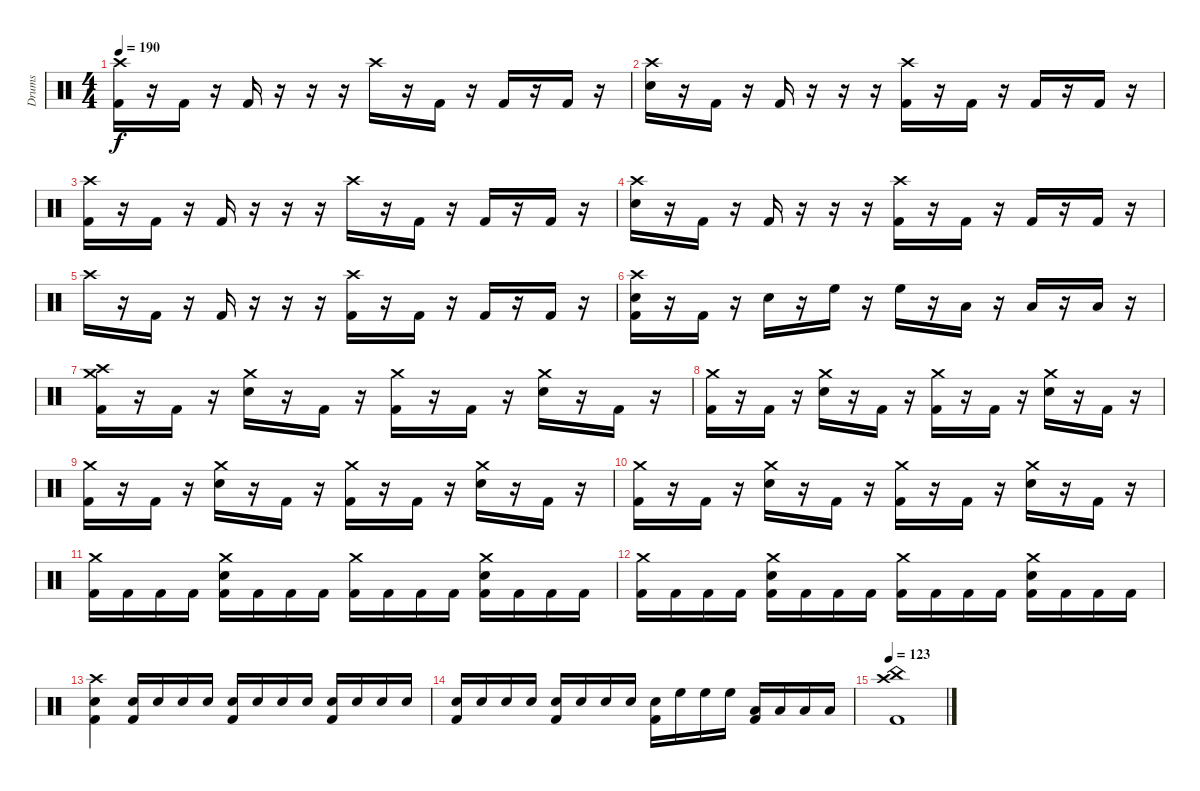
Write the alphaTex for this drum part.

\track ("Drums" "Drums") {instrument percussion}
\staff {score}
\articulation defaults
\ts (4 4)
\tempo 190
\clef neutral
\ks c
("Crash high (hit)" "Kick (hit) 2").16{dy f} r.16 "Kick (hit) 2".16 r.16 "Kick (hit) 2".16 r.16 r.16 r.16 "Crash high (hit)".16 r.16 "Kick (hit) 2".16 r.16 "Kick (hit) 2".16 r.16 "Kick (hit) 2".16 r.16 |
("Crash high (hit)" "Electric Snare (hit)").16 r.16 "Kick (hit) 2".16 r.16 "Kick (hit) 2".16 r.16 r.16 r.16 ("Crash high (hit)" "Kick (hit) 2").16 r.16 "Kick (hit) 2".16 r.16 "Kick (hit) 2".16 r.16 "Kick (hit) 2".16 r.16 |
("Crash high (hit)" "Kick (hit) 2").16 r.16 "Kick (hit) 2".16 r.16 "Kick (hit) 2".16 r.16 r.16 r.16 "Crash high (hit)".16 r.16 "Kick (hit) 2".16 r.16 "Kick (hit) 2".16 r.16 "Kick (hit) 2".16 r.16 |
("Crash high (hit)" "Electric Snare (hit)").16 r.16 "Kick (hit) 2".16 r.16 "Kick (hit) 2".16 r.16 r.16 r.16 ("Crash high (hit)" "Kick (hit) 2").16 r.16 "Kick (hit) 2".16 r.16 "Kick (hit) 2".16 r.16 "Kick (hit) 2".16 r.16 |
"Crash high (hit)".16 r.16 "Kick (hit) 2".16 r.16 "Kick (hit) 2".16 r.16 r.16 r.16 ("Crash high (hit)" "Kick (hit) 2").16 r.16 "Kick (hit) 2".16 r.16 "Kick (hit) 2".16 r.16 "Kick (hit) 2".16 r.16 |
("Crash high (hit)" "Electric Snare (hit)" "Kick (hit) 2").16 r.16 "Kick (hit) 2".16 r.16 "Electric Snare (hit)".16 r.16 "High Floor Tom (hit)".16 r.16 "High Floor Tom (hit)".16 r.16 "Low Tom (hit)".16 r.16 "Low Tom (hit)".16 r.16 "Low Floor Tom (hit)".16 r.16 |
("Crash medium (hit)" "Crash high (hit)" "Kick (hit) 2").16 r.16 "Kick (hit) 2".16 r.16 ("Crash medium (hit)" "Electric Snare (hit)").16 r.16 "Kick (hit) 2".16 r.16 ("Crash medium (hit)" "Kick (hit) 2").16 r.16 "Kick (hit) 2".16 r.16 ("Crash medium (hit)" "Electric Snare (hit)").16 r.16 "Kick (hit) 2".16 r.16 |
("Crash medium (hit)" "Kick (hit) 2").16 r.16 "Kick (hit) 2".16 r.16 ("Crash medium (hit)" "Electric Snare (hit)").16 r.16 "Kick (hit) 2".16 r.16 ("Crash medium (hit)" "Kick (hit) 2").16 r.16 "Kick (hit) 2".16 r.16 ("Crash medium (hit)" "Electric Snare (hit)").16 r.16 "Kick (hit) 2".16 r.16 |
("Crash medium (hit)" "Kick (hit) 2").16 r.16 "Kick (hit) 2".16 r.16 ("Crash medium (hit)" "Electric Snare (hit)").16 r.16 "Kick (hit) 2".16 r.16 ("Crash medium (hit)" "Kick (hit) 2").16 r.16 "Kick (hit) 2".16 r.16 ("Crash medium (hit)" "Electric Snare (hit)").16 r.16 "Kick (hit) 2".16 r.16 |
("Crash medium (hit)" "Kick (hit) 2").16 r.16 "Kick (hit) 2".16 r.16 ("Crash medium (hit)" "Electric Snare (hit)").16 r.16 "Kick (hit) 2".16 r.16 ("Crash medium (hit)" "Kick (hit) 2").16 r.16 "Kick (hit) 2".16 r.16 ("Crash medium (hit)" "Electric Snare (hit)").16 r.16 "Kick (hit) 2".16 r.16 |
("Crash medium (hit)" "Kick (hit) 2").16 "Kick (hit) 2".16 "Kick (hit) 2".16 "Kick (hit) 2".16 ("Crash medium (hit)" "Electric Snare (hit)" "Kick (hit) 2").16 "Kick (hit) 2".16 "Kick (hit) 2".16 "Kick (hit) 2".16 ("Crash medium (hit)" "Kick (hit) 2").16 "Kick (hit) 2".16 "Kick (hit) 2".16 "Kick (hit) 2".16 ("Crash medium (hit)" "Electric Snare (hit)" "Kick (hit) 2").16 "Kick (hit) 2".16 "Kick (hit) 2".16 "Kick (hit) 2".16 |
("Crash medium (hit)" "Kick (hit) 2").16 "Kick (hit) 2".16 "Kick (hit) 2".16 "Kick (hit) 2".16 ("Crash medium (hit)" "Electric Snare (hit)" "Kick (hit) 2").16 "Kick (hit) 2".16 "Kick (hit) 2".16 "Kick (hit) 2".16 ("Crash medium (hit)" "Kick (hit) 2").16 "Kick (hit) 2".16 "Kick (hit) 2".16 "Kick (hit) 2".16 ("Crash medium (hit)" "Electric Snare (hit)" "Kick (hit) 2").16 "Kick (hit) 2".16 "Kick (hit) 2".16 "Kick (hit) 2".16 |
("Crash high (hit)" "Electric Snare (hit)" "Kick (hit) 2").4 ("Electric Snare (hit)" "Kick (hit) 2").16 "Electric Snare (hit)".16 "Electric Snare (hit)".16 "Electric Snare (hit)".16 ("Electric Snare (hit)" "Kick (hit) 2").16 "Electric Snare (hit)".16 "Electric Snare (hit)".16 "Electric Snare (hit)".16 ("Electric Snare (hit)" "Kick (hit) 2").16 "Electric Snare (hit)".16 "Electric Snare (hit)".16 "Electric Snare (hit)".16 |
("Electric Snare (hit)" "Kick (hit) 2").16 "Electric Snare (hit)".16 "Electric Snare (hit)".16 "Electric Snare (hit)".16 ("Electric Snare (hit)" "Kick (hit) 2").16 "Electric Snare (hit)".16 "Electric Snare (hit)".16 "Electric Snare (hit)".16 ("Electric Snare (hit)" "Kick (hit) 2").16 "High Floor Tom (hit)".16 "High Floor Tom (hit)".16 "High Floor Tom (hit)".16 ("Low Tom (hit)" "Kick (hit) 2").16 "Low Tom (hit)".16 "Low Tom (hit)".16 "Low Tom (hit)".16 |
\tempo 123
("Crash high (hit)" "China (hit)" "Kick (hit) 2").1
